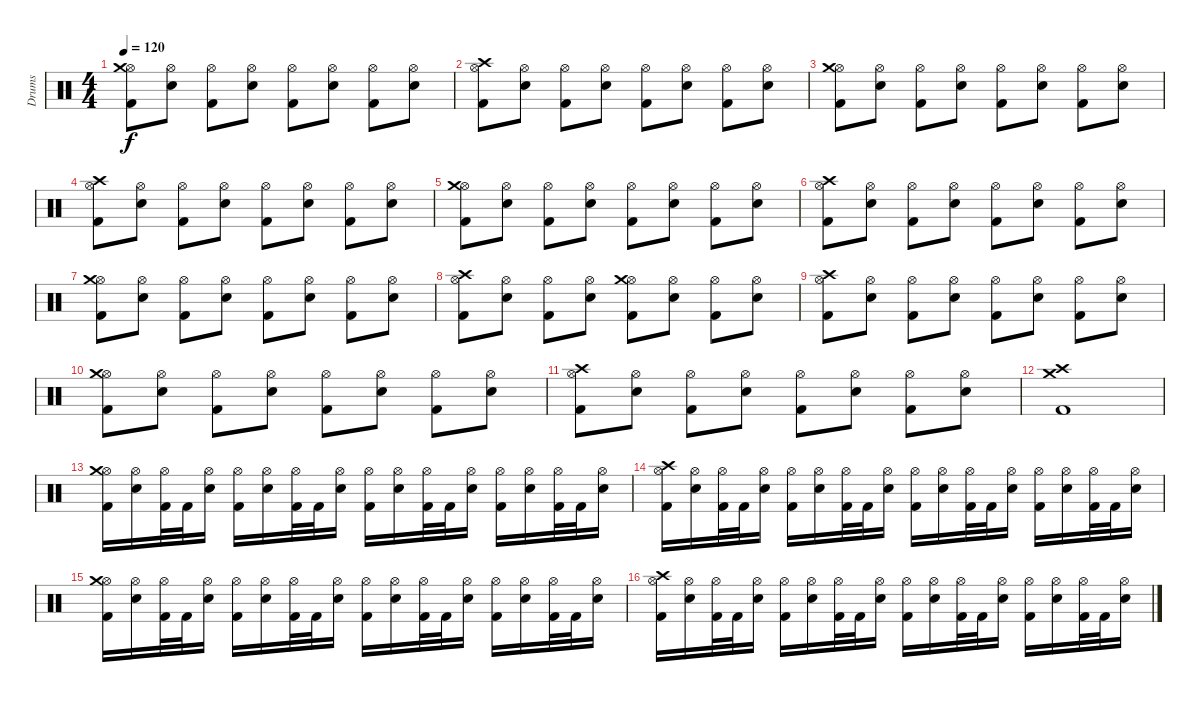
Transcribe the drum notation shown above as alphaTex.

\track ("Drums" "Drums") {instrument percussion}
\staff {score}
\articulation defaults
\ts (4 4)
\tempo 120
\clef neutral
\ks c
("Hi-Hat (open)" "Kick (hit) 2" "Crash medium (hit)").8{dy f} ("Hi-Hat (open)" "Electric Snare (hit)").8 ("Hi-Hat (open)" "Kick (hit) 2").8 ("Hi-Hat (open)" "Electric Snare (hit)").8 ("Hi-Hat (open)" "Kick (hit) 2").8 ("Hi-Hat (open)" "Electric Snare (hit)").8 ("Hi-Hat (open)" "Kick (hit) 2").8 ("Hi-Hat (open)" "Electric Snare (hit)").8 |
("Hi-Hat (open)" "Kick (hit) 2" "Crash high (hit)").8 ("Hi-Hat (open)" "Electric Snare (hit)").8 ("Hi-Hat (open)" "Kick (hit) 2").8 ("Hi-Hat (open)" "Electric Snare (hit)").8 ("Hi-Hat (open)" "Kick (hit) 2").8 ("Hi-Hat (open)" "Electric Snare (hit)").8 ("Hi-Hat (open)" "Kick (hit) 2").8 ("Hi-Hat (open)" "Electric Snare (hit)").8 |
("Hi-Hat (open)" "Kick (hit) 2" "Crash medium (hit)").8 ("Hi-Hat (open)" "Electric Snare (hit)").8 ("Hi-Hat (open)" "Kick (hit) 2").8 ("Hi-Hat (open)" "Electric Snare (hit)").8 ("Hi-Hat (open)" "Kick (hit) 2").8 ("Hi-Hat (open)" "Electric Snare (hit)").8 ("Hi-Hat (open)" "Kick (hit) 2").8 ("Hi-Hat (open)" "Electric Snare (hit)").8 |
("Hi-Hat (open)" "Kick (hit) 2" "Crash high (hit)").8 ("Hi-Hat (open)" "Electric Snare (hit)").8 ("Hi-Hat (open)" "Kick (hit) 2").8 ("Hi-Hat (open)" "Electric Snare (hit)").8 ("Hi-Hat (open)" "Kick (hit) 2").8 ("Hi-Hat (open)" "Electric Snare (hit)").8 ("Hi-Hat (open)" "Kick (hit) 2").8 ("Hi-Hat (open)" "Electric Snare (hit)").8 |
("Hi-Hat (open)" "Kick (hit) 2" "Crash medium (hit)").8 ("Hi-Hat (open)" "Electric Snare (hit)").8 ("Hi-Hat (open)" "Kick (hit) 2").8 ("Hi-Hat (open)" "Electric Snare (hit)").8 ("Hi-Hat (open)" "Kick (hit) 2").8 ("Hi-Hat (open)" "Electric Snare (hit)").8 ("Hi-Hat (open)" "Kick (hit) 2").8 ("Hi-Hat (open)" "Electric Snare (hit)").8 |
("Hi-Hat (open)" "Kick (hit) 2" "Crash high (hit)").8 ("Hi-Hat (open)" "Electric Snare (hit)").8 ("Hi-Hat (open)" "Kick (hit) 2").8 ("Hi-Hat (open)" "Electric Snare (hit)").8 ("Hi-Hat (open)" "Kick (hit) 2").8 ("Hi-Hat (open)" "Electric Snare (hit)").8 ("Hi-Hat (open)" "Kick (hit) 2").8 ("Hi-Hat (open)" "Electric Snare (hit)").8 |
("Hi-Hat (open)" "Kick (hit) 2" "Crash medium (hit)").8 ("Hi-Hat (open)" "Electric Snare (hit)").8 ("Hi-Hat (open)" "Kick (hit) 2").8 ("Hi-Hat (open)" "Electric Snare (hit)").8 ("Hi-Hat (open)" "Kick (hit) 2").8 ("Hi-Hat (open)" "Electric Snare (hit)").8 ("Hi-Hat (open)" "Kick (hit) 2").8 ("Hi-Hat (open)" "Electric Snare (hit)").8 |
("Hi-Hat (open)" "Kick (hit) 2" "Crash high (hit)").8 ("Hi-Hat (open)" "Electric Snare (hit)").8 ("Hi-Hat (open)" "Kick (hit) 2").8 ("Hi-Hat (open)" "Electric Snare (hit)").8 ("Hi-Hat (open)" "Kick (hit) 2" "Crash medium (hit)").8 ("Hi-Hat (open)" "Electric Snare (hit)").8 ("Hi-Hat (open)" "Kick (hit) 2").8 ("Hi-Hat (open)" "Electric Snare (hit)").8 |
("Hi-Hat (open)" "Kick (hit) 2" "Crash high (hit)").8 ("Hi-Hat (open)" "Electric Snare (hit)").8 ("Hi-Hat (open)" "Kick (hit) 2").8 ("Hi-Hat (open)" "Electric Snare (hit)").8 ("Hi-Hat (open)" "Kick (hit) 2").8 ("Hi-Hat (open)" "Electric Snare (hit)").8 ("Hi-Hat (open)" "Kick (hit) 2").8 ("Hi-Hat (open)" "Electric Snare (hit)").8 |
("Hi-Hat (open)" "Kick (hit) 2" "Crash medium (hit)").8 ("Hi-Hat (open)" "Electric Snare (hit)").8 ("Hi-Hat (open)" "Kick (hit) 2").8 ("Hi-Hat (open)" "Electric Snare (hit)").8 ("Hi-Hat (open)" "Kick (hit) 2").8 ("Hi-Hat (open)" "Electric Snare (hit)").8 ("Hi-Hat (open)" "Kick (hit) 2").8 ("Hi-Hat (open)" "Electric Snare (hit)").8 |
("Hi-Hat (open)" "Kick (hit) 2" "Crash high (hit)").8 ("Hi-Hat (open)" "Electric Snare (hit)").8 ("Hi-Hat (open)" "Kick (hit) 2").8 ("Hi-Hat (open)" "Electric Snare (hit)").8 ("Hi-Hat (open)" "Kick (hit) 2").8 ("Hi-Hat (open)" "Electric Snare (hit)").8 ("Hi-Hat (open)" "Kick (hit) 2").8 ("Hi-Hat (open)" "Electric Snare (hit)").8 |
("Crash medium (hit)" "Crash high (hit)" "Kick (hit) 2").1 |
("Hi-Hat (open)" "Kick (hit) 2" "Crash medium (hit)").16 ("Hi-Hat (open)" "Electric Snare (hit)").16 ("Hi-Hat (open)" "Kick (hit) 2").32 "Kick (hit) 2".32 ("Hi-Hat (open)" "Electric Snare (hit)").16 ("Hi-Hat (open)" "Kick (hit) 2").16 ("Hi-Hat (open)" "Electric Snare (hit)").16 ("Hi-Hat (open)" "Kick (hit) 2").32 "Kick (hit) 2".32 ("Hi-Hat (open)" "Electric Snare (hit)").16 ("Hi-Hat (open)" "Kick (hit) 2").16 ("Hi-Hat (open)" "Electric Snare (hit)").16 ("Hi-Hat (open)" "Kick (hit) 2").32 "Kick (hit) 2".32 ("Hi-Hat (open)" "Electric Snare (hit)").16 ("Hi-Hat (open)" "Kick (hit) 2").16 ("Hi-Hat (open)" "Electric Snare (hit)").16 ("Hi-Hat (open)" "Kick (hit) 2").32 "Kick (hit) 2".32 ("Hi-Hat (open)" "Electric Snare (hit)").16 |
("Hi-Hat (open)" "Kick (hit) 2" "Crash high (hit)").16 ("Hi-Hat (open)" "Electric Snare (hit)").16 ("Hi-Hat (open)" "Kick (hit) 2").32 "Kick (hit) 2".32 ("Hi-Hat (open)" "Electric Snare (hit)").16 ("Hi-Hat (open)" "Kick (hit) 2").16 ("Hi-Hat (open)" "Electric Snare (hit)").16 ("Hi-Hat (open)" "Kick (hit) 2").32 "Kick (hit) 2".32 ("Hi-Hat (open)" "Electric Snare (hit)").16 ("Hi-Hat (open)" "Kick (hit) 2").16 ("Hi-Hat (open)" "Electric Snare (hit)").16 ("Hi-Hat (open)" "Kick (hit) 2").32 "Kick (hit) 2".32 ("Hi-Hat (open)" "Electric Snare (hit)").16 ("Hi-Hat (open)" "Kick (hit) 2").16 ("Hi-Hat (open)" "Electric Snare (hit)").16 ("Hi-Hat (open)" "Kick (hit) 2").32 "Kick (hit) 2".32 ("Hi-Hat (open)" "Electric Snare (hit)").16 |
("Hi-Hat (open)" "Kick (hit) 2" "Crash medium (hit)").16 ("Hi-Hat (open)" "Electric Snare (hit)").16 ("Hi-Hat (open)" "Kick (hit) 2").32 "Kick (hit) 2".32 ("Hi-Hat (open)" "Electric Snare (hit)").16 ("Hi-Hat (open)" "Kick (hit) 2").16 ("Hi-Hat (open)" "Electric Snare (hit)").16 ("Hi-Hat (open)" "Kick (hit) 2").32 "Kick (hit) 2".32 ("Hi-Hat (open)" "Electric Snare (hit)").16 ("Hi-Hat (open)" "Kick (hit) 2").16 ("Hi-Hat (open)" "Electric Snare (hit)").16 ("Hi-Hat (open)" "Kick (hit) 2").32 "Kick (hit) 2".32 ("Hi-Hat (open)" "Electric Snare (hit)").16 ("Hi-Hat (open)" "Kick (hit) 2").16 ("Hi-Hat (open)" "Electric Snare (hit)").16 ("Hi-Hat (open)" "Kick (hit) 2").32 "Kick (hit) 2".32 ("Hi-Hat (open)" "Electric Snare (hit)").16 |
("Hi-Hat (open)" "Kick (hit) 2" "Crash high (hit)").16 ("Hi-Hat (open)" "Electric Snare (hit)").16 ("Hi-Hat (open)" "Kick (hit) 2").32 "Kick (hit) 2".32 ("Hi-Hat (open)" "Electric Snare (hit)").16 ("Hi-Hat (open)" "Kick (hit) 2").16 ("Hi-Hat (open)" "Electric Snare (hit)").16 ("Hi-Hat (open)" "Kick (hit) 2").32 "Kick (hit) 2".32 ("Hi-Hat (open)" "Electric Snare (hit)").16 ("Hi-Hat (open)" "Kick (hit) 2").16 ("Hi-Hat (open)" "Electric Snare (hit)").16 ("Hi-Hat (open)" "Kick (hit) 2").32 "Kick (hit) 2".32 ("Hi-Hat (open)" "Electric Snare (hit)").16 ("Hi-Hat (open)" "Kick (hit) 2").16 ("Hi-Hat (open)" "Electric Snare (hit)").16 ("Hi-Hat (open)" "Kick (hit) 2").32 "Kick (hit) 2".32 ("Hi-Hat (open)" "Electric Snare (hit)").16
